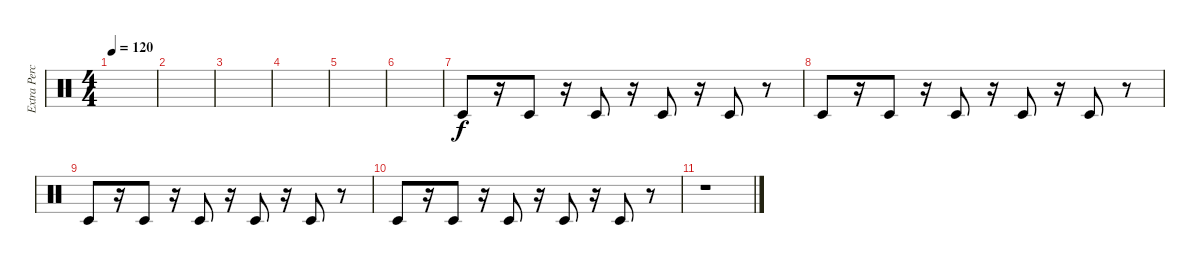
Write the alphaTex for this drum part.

\track ("Extra Percussion" "Extra Perc") {instrument percussion}
\staff {score}
\articulation defaults
\ts (4 4)
\tempo 120
\clef neutral
\ks c
|
|
|
|
|
|
"Timbale low (hit)".8 r.16 "Timbale low (hit)".8 r.16 "Timbale low (hit)".8 r.16 "Timbale low (hit)".8 r.16 "Timbale low (hit)".8 r.8 |
"Timbale low (hit)".8 r.16 "Timbale low (hit)".8 r.16 "Timbale low (hit)".8 r.16 "Timbale low (hit)".8 r.16 "Timbale low (hit)".8 r.8 |
"Timbale low (hit)".8 r.16 "Timbale low (hit)".8 r.16 "Timbale low (hit)".8 r.16 "Timbale low (hit)".8 r.16 "Timbale low (hit)".8 r.8 |
"Timbale low (hit)".8 r.16 "Timbale low (hit)".8 r.16 "Timbale low (hit)".8 r.16 "Timbale low (hit)".8 r.16 "Timbale low (hit)".8 r.8 |
r.1
